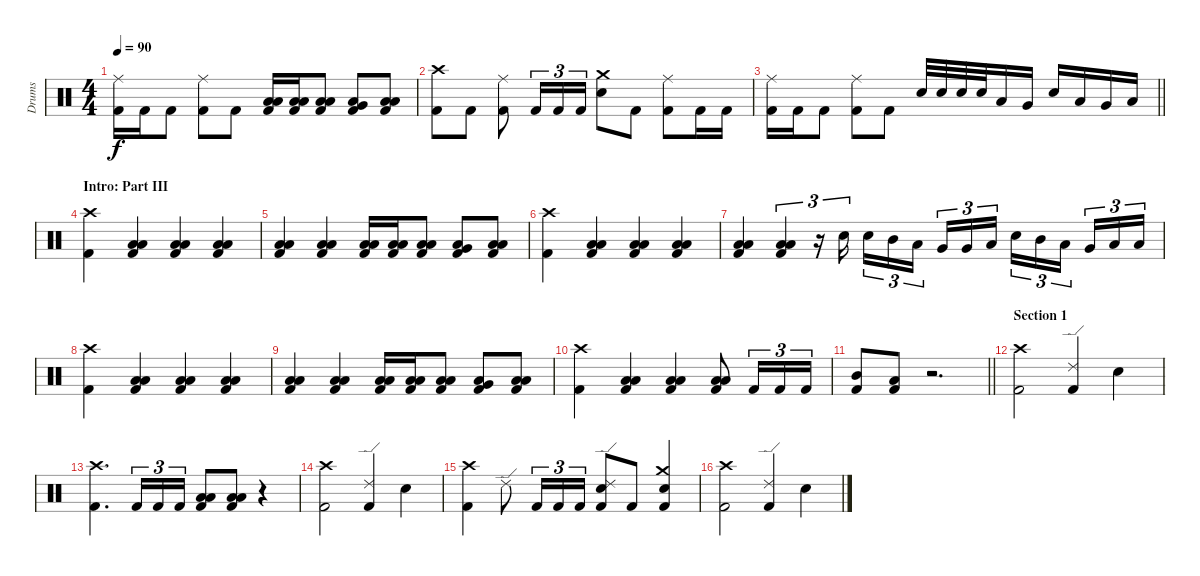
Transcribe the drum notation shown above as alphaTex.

\track ("Drums" "Drums") {instrument percussion}
\staff {score}
\articulation defaults
\ts (4 4)
\tempo 90
\clef neutral
\ks c
("Ride (middle)" "Kick (hit) 2").16{dy f} "Kick (hit) 2".16 "Kick (hit) 2".8 ("Ride (middle)" "Kick (hit) 2").8 "Kick (hit) 2".8 ("Low Tom (hit)" "Low Floor Tom (hit)" "Kick (hit) 2").16 ("Low Tom (hit)" "Low Floor Tom (hit)" "Kick (hit) 2").16 ("Low Tom (hit)" "Low Floor Tom (hit)" "Kick (hit) 2").8 ("Very Low Tom (hit)" "Low Floor Tom (hit)" "Kick (hit) 2").8 ("Low Tom (hit)" "Low Floor Tom (hit)" "Kick (hit) 2").8 |
("Crash high (hit)" "Kick (hit) 2").8 "Kick (hit) 2".8 ("Ride (middle)" "Kick (hit) 2").8 "Kick (hit) 2".16{tu (3 2)} "Kick (hit) 2".16{tu (3 2)} "Kick (hit) 2".16{tu (3 2)} ("Crash medium (hit)" "Electric Snare (hit)").8 "Kick (hit) 2".8 ("Ride (middle)" "Kick (hit) 2").8 "Kick (hit) 2".16 "Kick (hit) 2".16 |
\barLineRight lightlight
("Ride (middle)" "Kick (hit) 2").16 "Kick (hit) 2".16 "Kick (hit) 2".8 ("Ride (middle)" "Kick (hit) 2").8 "Kick (hit) 2".8 "Electric Snare (hit)".32 "Electric Snare (hit)".32 "Electric Snare (hit)".32 "Electric Snare (hit)".32 "Low Tom (hit)".16 "Very Low Tom (hit)".16 "Electric Snare (hit)".16 "Low Tom (hit)".16 "Very Low Tom (hit)".16 "Low Floor Tom (hit)".16 |
\section ("" "Intro: Part III")
("Crash high (hit)" "Kick (hit) 2").4 ("Low Tom (hit)" "Low Floor Tom (hit)" "Kick (hit) 2").4 ("Low Tom (hit)" "Low Floor Tom (hit)" "Kick (hit) 2").4 ("Low Tom (hit)" "Low Floor Tom (hit)" "Kick (hit) 2").4 |
("Low Tom (hit)" "Low Floor Tom (hit)" "Kick (hit) 2").4 ("Low Tom (hit)" "Low Floor Tom (hit)" "Kick (hit) 2").4 ("Low Tom (hit)" "Low Floor Tom (hit)" "Kick (hit) 2").16 ("Low Tom (hit)" "Low Floor Tom (hit)" "Kick (hit) 2").16 ("Low Tom (hit)" "Low Floor Tom (hit)" "Kick (hit) 2").8 ("Very Low Tom (hit)" "Low Floor Tom (hit)" "Kick (hit) 2").8 ("Low Tom (hit)" "Low Floor Tom (hit)" "Kick (hit) 2").8 |
("Crash high (hit)" "Kick (hit) 2").4 ("Low Tom (hit)" "Low Floor Tom (hit)" "Kick (hit) 2").4 ("Low Tom (hit)" "Low Floor Tom (hit)" "Kick (hit) 2").4 ("Low Tom (hit)" "Low Floor Tom (hit)" "Kick (hit) 2").4 |
("Low Tom (hit)" "Low Floor Tom (hit)" "Kick (hit) 2").4 ("Low Tom (hit)" "Low Floor Tom (hit)" "Kick (hit) 2").4{tu (3 2)} r.16{tu (3 2)} "Electric Snare (hit)".16{tu (3 2)} "Electric Snare (hit)".16{tu (3 2)} "Mid Tom (hit)".16{tu (3 2)} "Low Tom (hit)".16{tu (3 2) beam splitsecondary} "Very Low Tom (hit)".16{tu (3 2)} "Very Low Tom (hit)".16{tu (3 2)} "Low Floor Tom (hit)".16{tu (3 2)} "Electric Snare (hit)".16{tu (3 2)} "Mid Tom (hit)".16{tu (3 2)} "Low Tom (hit)".16{tu (3 2) beam splitsecondary} "Very Low Tom (hit)".16{tu (3 2)} "Low Floor Tom (hit)".16{tu (3 2)} "Low Floor Tom (hit)".16{tu (3 2)} |
("Crash high (hit)" "Kick (hit) 2").4 ("Low Tom (hit)" "Low Floor Tom (hit)" "Kick (hit) 2").4 ("Low Tom (hit)" "Low Floor Tom (hit)" "Kick (hit) 2").4 ("Low Tom (hit)" "Low Floor Tom (hit)" "Kick (hit) 2").4 |
("Low Tom (hit)" "Low Floor Tom (hit)" "Kick (hit) 2").4 ("Low Tom (hit)" "Low Floor Tom (hit)" "Kick (hit) 2").4 ("Low Tom (hit)" "Low Floor Tom (hit)" "Kick (hit) 2").16 ("Low Tom (hit)" "Low Floor Tom (hit)" "Kick (hit) 2").16 ("Low Tom (hit)" "Low Floor Tom (hit)" "Kick (hit) 2").8 ("Very Low Tom (hit)" "Low Floor Tom (hit)" "Kick (hit) 2").8 ("Low Tom (hit)" "Low Floor Tom (hit)" "Kick (hit) 2").8 |
("Crash high (hit)" "Kick (hit) 2").4 ("Low Tom (hit)" "Low Floor Tom (hit)" "Kick (hit) 2").4 ("Low Tom (hit)" "Low Floor Tom (hit)" "Kick (hit) 2").4 ("Low Tom (hit)" "Low Floor Tom (hit)" "Kick (hit) 2").8 "Kick (hit) 2".16{tu (3 2)} "Kick (hit) 2".16{tu (3 2)} "Kick (hit) 2".16{tu (3 2)} |
\barLineRight lightlight
("Mid Tom (hit)" "Kick (hit) 2").8 ("Low Tom (hit)" "Kick (hit) 2").8 r.2{d} |
\section ("" "Section 1")
("Crash high (hit)" "Kick (hit) 2").2 ("Ride (edge) 2" "Kick (hit) 2").4 "Electric Snare (hit)".4 |
("Crash high (hit)" "Kick (hit) 2").4{d} "Kick (hit) 2".16{tu (3 2)} "Kick (hit) 2".16{tu (3 2)} "Kick (hit) 2".16{tu (3 2)} ("Low Tom (hit)" "Low Floor Tom (hit)" "Kick (hit) 2").8 ("Low Tom (hit)" "Low Floor Tom (hit)" "Kick (hit) 2").8 r.4 |
("Crash high (hit)" "Kick (hit) 2").2 ("Ride (edge) 2" "Kick (hit) 2").4 "Electric Snare (hit)".4 |
("Crash high (hit)" "Kick (hit) 2").4 "Ride (edge) 2".8 "Kick (hit) 2".16{tu (3 2)} "Kick (hit) 2".16{tu (3 2)} "Kick (hit) 2".16{tu (3 2)} ("Ride (edge) 2" "Electric Snare (hit)" "Kick (hit) 2").8 "Kick (hit) 2".8 ("Crash medium (hit)" "Electric Snare (hit)" "Kick (hit) 2").4 |
("Crash high (hit)" "Kick (hit) 2").2 ("Ride (edge) 2" "Kick (hit) 2").4 "Electric Snare (hit)".4
